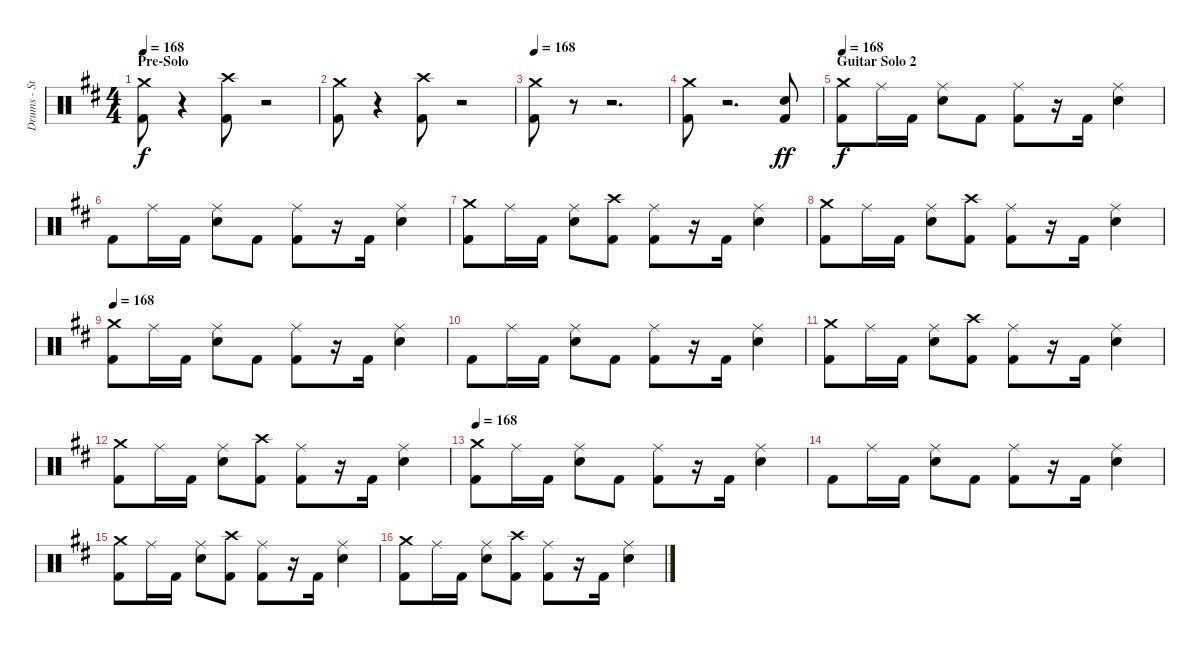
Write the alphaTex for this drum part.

\track ("Drums - Steve Wacholz" "Drums - St") {instrument percussion}
\staff {score}
\articulation defaults
\ts (4 4)
\section ("" "Pre-Solo")
\tempo 168
\clef neutral
\ks d
("Crash medium (hit)" "Kick (hit) 2").8{dy f} r.4 ("Crash high (hit)" "Kick (hit) 2").8 r.2 |
("Crash medium (hit)" "Kick (hit) 2").8 r.4 ("Crash high (hit)" "Kick (hit) 2").8 r.2 |
\tempo 168
("Crash medium (hit)" "Kick (hit) 2").8 r.8 r.2{d} |
("Crash medium (hit)" "Kick (hit) 2").8 r.2{d} ("Electric Snare (hit)" "Kick (hit) 2").8{dy ff} |
\section ("" "Guitar Solo 2")
\tempo 168
("Crash medium (hit)" "Kick (hit) 2").8{dy f} "Ride (middle)".16 "Kick (hit) 2".16 ("Ride (middle)" "Electric Snare (hit)").8 "Kick (hit) 2".8 ("Ride (middle)" "Kick (hit) 2").8 r.16 "Kick (hit) 2".16 ("Ride (middle)" "Electric Snare (hit)").4 |
"Kick (hit) 2".8 "Ride (middle)".16 "Kick (hit) 2".16 ("Ride (middle)" "Electric Snare (hit)").8 "Kick (hit) 2".8 ("Ride (middle)" "Kick (hit) 2").8 r.16 "Kick (hit) 2".16 ("Ride (middle)" "Electric Snare (hit)").4 |
("Crash medium (hit)" "Kick (hit) 2").8 "Ride (middle)".16 "Kick (hit) 2".16 ("Ride (middle)" "Electric Snare (hit)").8 ("Crash high (hit)" "Kick (hit) 2").8 ("Ride (middle)" "Kick (hit) 2").8 r.16 "Kick (hit) 2".16 ("Ride (middle)" "Electric Snare (hit)").4 |
("Crash medium (hit)" "Kick (hit) 2").8 "Ride (middle)".16 "Kick (hit) 2".16 ("Ride (middle)" "Electric Snare (hit)").8 ("Crash high (hit)" "Kick (hit) 2").8 ("Ride (middle)" "Kick (hit) 2").8 r.16 "Kick (hit) 2".16 ("Ride (middle)" "Electric Snare (hit)").4 |
\tempo 168
("Crash medium (hit)" "Kick (hit) 2").8 "Ride (middle)".16 "Kick (hit) 2".16 ("Ride (middle)" "Electric Snare (hit)").8 "Kick (hit) 2".8 ("Ride (middle)" "Kick (hit) 2").8 r.16 "Kick (hit) 2".16 ("Ride (middle)" "Electric Snare (hit)").4 |
"Kick (hit) 2".8 "Ride (middle)".16 "Kick (hit) 2".16 ("Ride (middle)" "Electric Snare (hit)").8 "Kick (hit) 2".8 ("Ride (middle)" "Kick (hit) 2").8 r.16 "Kick (hit) 2".16 ("Ride (middle)" "Electric Snare (hit)").4 |
("Crash medium (hit)" "Kick (hit) 2").8 "Ride (middle)".16 "Kick (hit) 2".16 ("Ride (middle)" "Electric Snare (hit)").8 ("Crash high (hit)" "Kick (hit) 2").8 ("Ride (middle)" "Kick (hit) 2").8 r.16 "Kick (hit) 2".16 ("Ride (middle)" "Electric Snare (hit)").4 |
("Crash medium (hit)" "Kick (hit) 2").8 "Ride (middle)".16 "Kick (hit) 2".16 ("Ride (middle)" "Electric Snare (hit)").8 ("Crash high (hit)" "Kick (hit) 2").8 ("Ride (middle)" "Kick (hit) 2").8 r.16 "Kick (hit) 2".16 ("Ride (middle)" "Electric Snare (hit)").4 |
\tempo 168
("Crash medium (hit)" "Kick (hit) 2").8 "Ride (middle)".16 "Kick (hit) 2".16 ("Ride (middle)" "Electric Snare (hit)").8 "Kick (hit) 2".8 ("Ride (middle)" "Kick (hit) 2").8 r.16 "Kick (hit) 2".16 ("Ride (middle)" "Electric Snare (hit)").4 |
"Kick (hit) 2".8 "Ride (middle)".16 "Kick (hit) 2".16 ("Ride (middle)" "Electric Snare (hit)").8 "Kick (hit) 2".8 ("Ride (middle)" "Kick (hit) 2").8 r.16 "Kick (hit) 2".16 ("Ride (middle)" "Electric Snare (hit)").4 |
("Crash medium (hit)" "Kick (hit) 2").8 "Ride (middle)".16 "Kick (hit) 2".16 ("Ride (middle)" "Electric Snare (hit)").8 ("Crash high (hit)" "Kick (hit) 2").8 ("Ride (middle)" "Kick (hit) 2").8 r.16 "Kick (hit) 2".16 ("Ride (middle)" "Electric Snare (hit)").4 |
("Crash medium (hit)" "Kick (hit) 2").8 "Ride (middle)".16 "Kick (hit) 2".16 ("Ride (middle)" "Electric Snare (hit)").8 ("Crash high (hit)" "Kick (hit) 2").8 ("Ride (middle)" "Kick (hit) 2").8 r.16 "Kick (hit) 2".16 ("Ride (middle)" "Electric Snare (hit)").4
